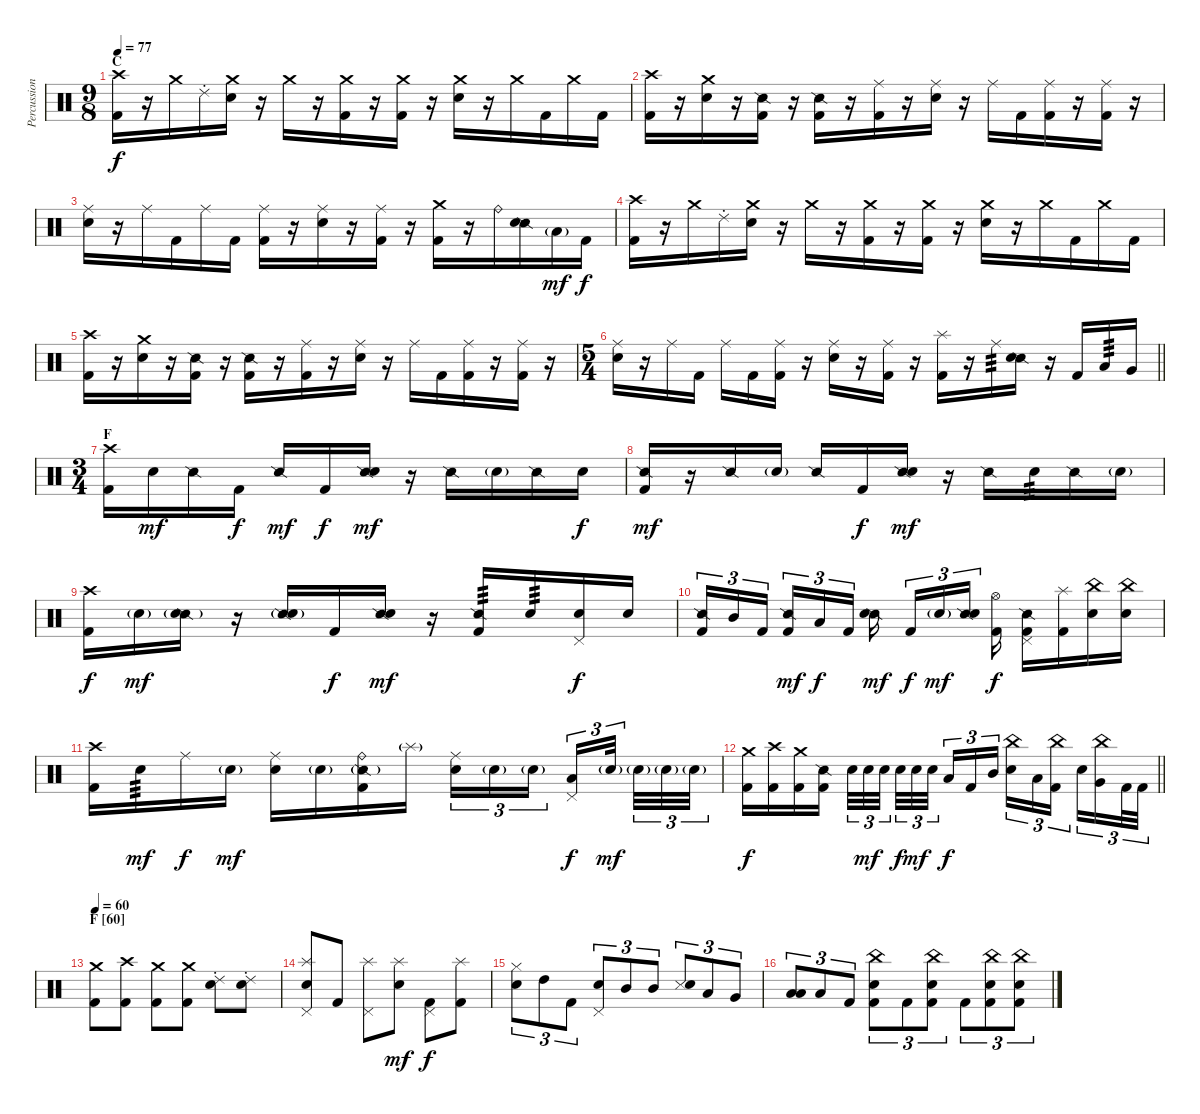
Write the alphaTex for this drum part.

\track ("Percussion" "Percussion") {instrument percussion}
\staff {score}
\articulation defaults
\ts (9 8)
\section ("" "C")
\tempo 77
\clef neutral
\ks c
("Crash high (hit)" "Kick (hit) 2").16{dy f} r.16 "Crash medium (hit)".16 "Ride (choke) 2".16 ("Crash medium (hit)" "Snare (hit) 2").16 r.16 "Crash medium (hit)".16 r.16 ("Crash medium (hit)" "Kick (hit) 2").16 r.16 ("Crash medium (hit)" "Kick (hit) 2").16 r.16 ("Crash medium (hit)" "Snare (hit) 2").16 r.16 "Crash medium (hit)".16 "Kick (hit) 2".16 "Crash medium (hit)".16 "Kick (hit) 2".16 |
("Crash high (hit)" "Kick (hit) 2").16 r.16 ("Crash medium (hit)" "Snare (hit) 2").16 r.16 ("Snare (side stick) 2" "Kick (hit) 2").16 r.16 ("Snare (side stick) 2" "Kick (hit) 2").16 r.16 ("Ride (middle)" "Kick (hit) 2").16 r.16 ("Ride (middle)" "Snare (hit) 2").16 r.16 "Ride (middle)".16 "Kick (hit) 2".16 ("Ride (middle)" "Kick (hit) 2").16 r.16 ("Ride (middle)" "Kick (hit) 2").16 r.16 |
("Ride (middle)" "Snare (hit) 2").16 r.16 "Ride (middle)".16 "Kick (hit) 2".16 "Ride (middle)".16 "Kick (hit) 2".16 ("Ride (middle)" "Kick (hit) 2").16 r.16 ("Ride (middle)" "Snare (hit) 2").16 r.16 ("Ride (middle)" "Kick (hit) 2").16 r.16 ("Crash medium (hit)" "Kick (hit) 2").16 r.16 "Ride (bell)".16 ("Snare (side stick) 2" "Snare (hit) 2").16 "Low Tom (hit)"{g}.16{dy mf} "Kick (hit) 2".16{dy f} |
("Crash high (hit)" "Kick (hit) 2").16 r.16 "Crash medium (hit)".16 "Ride (choke) 2".16 ("Crash medium (hit)" "Snare (hit) 2").16 r.16 "Crash medium (hit)".16 r.16 ("Crash medium (hit)" "Kick (hit) 2").16 r.16 ("Crash medium (hit)" "Kick (hit) 2").16 r.16 ("Crash medium (hit)" "Snare (hit) 2").16 r.16 "Crash medium (hit)".16 "Kick (hit) 2".16 "Crash medium (hit)".16 "Kick (hit) 2".16 |
("Crash high (hit)" "Kick (hit) 2").16 r.16 ("Crash medium (hit)" "Snare (hit) 2").16 r.16 ("Snare (side stick) 2" "Kick (hit) 2").16 r.16 ("Snare (side stick) 2" "Kick (hit) 2").16 r.16 ("Ride (middle)" "Kick (hit) 2").16 r.16 ("Ride (middle)" "Snare (hit) 2").16 r.16 "Ride (middle)".16 "Kick (hit) 2".16 ("Ride (middle)" "Kick (hit) 2").16 r.16 ("Ride (middle)" "Kick (hit) 2").16 r.16 |
\ts (5 4)
\barLineRight lightlight
("Ride (middle)" "Snare (hit) 2").16 r.16 "Ride (middle)".16 "Kick (hit) 2".16 "Ride (middle)".16 "Kick (hit) 2".16 ("Ride (middle)" "Kick (hit) 2").16 r.16 ("Ride (middle)" "Snare (hit) 2").16 r.16 ("Ride (middle)" "Kick (hit) 2").16 r.16 ("Splash (hit)" "Kick (hit) 2").16 r.16 "Ride (middle)".16{tp 3} ("Snare (side stick) 2" "Snare (hit) 2").16 r.16 "Kick (hit) 2".16 "Low Tom (hit)".16{tp 3} "Very Low Tom (hit)".16 |
\ts (3 4)
\section ("" "F")
("Crash high (hit)" "Kick (hit) 2").16 "Snare (hit) 2".16{dy mf} "Snare (side stick) 2".16 "Kick (hit) 2".16{dy f} "Snare (side stick) 2".16{dy mf} "Kick (hit) 2".16{dy f} ("Snare (side stick) 2" "Snare (hit) 2").16{dy mf} r.16 "Snare (side stick) 2".16 "Snare (hit) 2"{g}.16 "Snare (side stick) 2".16 "Snare (hit) 2".16{dy f} |
("Snare (side stick) 2" "Kick (hit) 2").16{dy mf} r.16 "Snare (side stick) 2".16 "Snare (hit) 2"{g}.16 "Snare (side stick) 2".16 "Kick (hit) 2".16{dy f} ("Snare (side stick) 2" "Snare (hit) 2").16{dy mf} r.16 "Snare (side stick) 2".16 "Snare (hit) 2".16{tp 3} "Snare (side stick) 2".16 "Snare (hit) 2"{g}.16 |
("Crash high (hit)" "Kick (hit) 2").16{dy f} "Snare (hit) 2"{g}.16{dy mf} ("Snare (side stick) 2" "Snare (hit) 2"{g}).16 r.16 ("Snare (side stick) 2" "Snare (hit) 2"{g}).16 "Kick (hit) 2".16{dy f} ("Snare (side stick) 2" "Snare (hit) 2").16{dy mf} r.16 ("Snare (side stick) 2" "Kick (hit) 2").16{tp 3} "Snare (hit) 2".16{tp 3} ("Pedal Hi-Hat (hit)" "Snare (hit) 2").16{dy f} "Snare (hit) 2".16 |
("Snare (side stick) 2" "Kick (hit) 2").16{tu (3 2)} "Mid Tom (hit)".16{tu (3 2)} "Kick (hit) 2".16{tu (3 2) beam splitsecondary} ("Snare (side stick) 2" "Kick (hit) 2").16{tu (3 2) dy mf} "Low Tom (hit)".16{tu (3 2) dy f} "Kick (hit) 2".16{tu (3 2)} ("Snare (side stick) 2" "Snare (hit) 2").16{dy mf beam splitsecondary} "Kick (hit) 2".16{tu (3 2) dy f} "Snare (hit) 2"{g}.16{tu (3 2) dy mf} ("Snare (side stick) 2" "Snare (hit) 2").16{tu (3 2) beam splitsecondary} ("Hi-Hat (open)" "Kick (hit) 2").16{dy f} ("Snare (side stick) 2" "Pedal Hi-Hat (hit)" "Kick (hit) 2").16 ("Splash (hit)" "Kick (hit) 2").16 ("China (hit)" "Snare (hit) 2").16 ("China (hit)" "Snare (hit) 2").16 |
("Crash high (hit)" "Kick (hit) 2").16 "Snare (hit) 2".16{tp 3 dy mf} "Ride (middle)".16{dy f} "Snare (hit) 2"{g}.16{dy mf} ("Ride (middle)" "Snare (hit) 2").16 "Snare (hit) 2"{g}.16 ("Ride (bell)" "Snare (side stick) 2"{g} "Kick (hit) 2").16 "Splash (hit)"{g}.16 ("Ride (middle)" "Snare (hit) 2").16{tu (3 2)} "Snare (hit) 2"{g}.16{tu (3 2)} "Snare (hit) 2"{g}.16{tu (3 2) beam splitsecondary} ("Pedal Hi-Hat (hit)" "Low Tom (hit)").16{tu (3 2) dy f} "Snare (hit) 2"{g}.32{tu (3 2) dy mf beam splitsecondary} "Snare (hit) 2"{g}.32{tu (3 2)} "Snare (hit) 2"{g}.32{tu (3 2)} "Snare (hit) 2"{g}.32{tu (3 2)} |
\barLineRight lightlight
("Crash medium (hit)" "Kick (hit) 2").16{dy f} ("Crash high (hit)" "Kick (hit) 2").16 ("Crash medium (hit)" "Kick (hit) 2").16 ("Snare (side stick) 2" "Kick (hit) 2").16 "Snare (hit) 2".32{tu (3 2)} "Snare (hit) 2".32{tu (3 2) dy mf} "Snare (hit) 2".32{tu (3 2) beam splitsecondary} "Snare (hit) 2".32{tu (3 2) dy f} "Snare (hit) 2".32{tu (3 2) dy mf} "Snare (hit) 2".32{tu (3 2) beam splitsecondary} "Low Tom (hit)".16{tu (3 2) dy f} "Kick (hit) 2".16{tu (3 2)} "Mid Tom (hit)".16{tu (3 2)} ("China (hit)" "Snare (hit) 2").16{tu (3 2)} "Low Tom (hit)".16{tu (3 2)} ("China (hit)" "Kick (hit) 2").16{tu (3 2) beam splitsecondary} "Snare (hit) 2".16{tu (3 2)} ("China (hit)" "Very Low Tom (hit)").16{tu (3 2)} "Kick (hit) 2".32{tu (3 2)} "Kick (hit) 2".32{tu (3 2)} |
\section ("" "F [60]")
\tempo 60
("Crash medium (hit)" "Kick (hit) 2").8 ("Crash high (hit)" "Kick (hit) 2").8 ("Crash medium (hit)" "Kick (hit) 2").8 ("Crash medium (hit)" "Kick (hit) 2").8 ("Ride (choke) 2" "Snare (hit) 2").8 ("Ride (choke) 2" "Snare (hit) 2").8 |
("Splash (hit)" "Pedal Hi-Hat (hit)" "Snare (hit) 2").8 "Kick (hit) 2".8 ("Splash (hit)" "Pedal Hi-Hat (hit)").8 ("Splash (hit)" "Snare (hit) 2").8{dy mf} ("Pedal Hi-Hat (hit)" "Kick (hit) 2").8{dy f} ("Splash (hit)" "Kick (hit) 2").8 |
("Hi-Hat (closed)" "Snare (hit) 2").8{tu (3 2)} "High Tom (hit)".8{tu (3 2)} "Kick (hit) 2".8{tu (3 2)} ("Pedal Hi-Hat (hit)" "Snare (hit) 2").8{tu (3 2)} "Mid Tom (hit)".8{tu (3 2)} "Mid Tom (hit)".8{tu (3 2)} ("Metronome (hit)" "Snare (hit) 2").8{tu (3 2) bu 480} "Low Tom (hit)".8{tu (3 2)} "Very Low Tom (hit)".8{tu (3 2)} |
("Low Floor Tom (hit)" "Low Floor Tom (hit)").8{tu (3 2) bu 480} "Low Floor Tom (hit)".8{tu (3 2)} "Kick (hit) 2".8{tu (3 2)} ("China (hit)" "Snare (hit) 2" "Kick (hit) 2").8{tu (3 2)} "Kick (hit) 2".8{tu (3 2)} ("China (hit)" "Snare (hit) 2" "Kick (hit) 2").8{tu (3 2)} "Kick (hit) 2".8{tu (3 2)} ("China (hit)" "Snare (hit) 2" "Kick (hit) 2").8{tu (3 2)} ("China (hit)" "Snare (hit) 2" "Kick (hit) 2").8{tu (3 2)}
